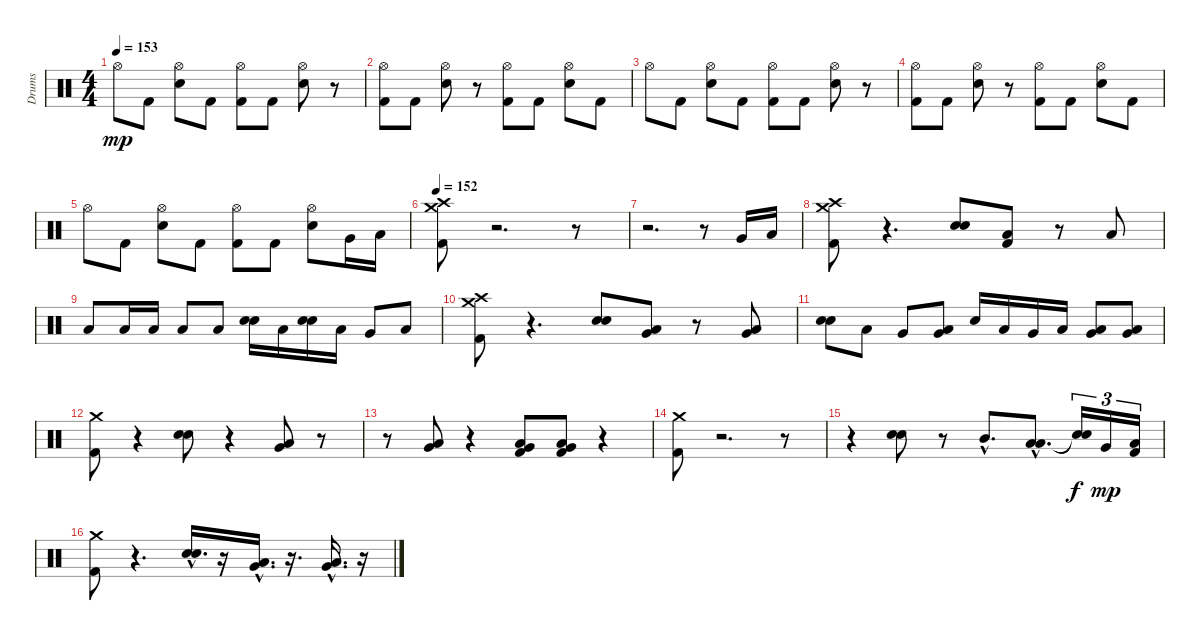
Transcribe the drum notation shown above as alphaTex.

\track ("Drums" "Drums") {instrument percussion}
\staff {score}
\articulation defaults
\ts (4 4)
\tempo 153
\clef neutral
\ks c "Hi-Hat (open)".8{dy mp} "Kick (hit) 2".8
("Hi-Hat (open)" "Snare (hit) 2").8 "Kick (hit) 2".8 ("Kick (hit) 2" "Hi-Hat (open)").8 "Kick (hit) 2".8 ("Snare (hit) 2" "Hi-Hat (open)").8 r.8 |
("Hi-Hat (open)" "Kick (hit) 2").8 "Kick (hit) 2".8 ("Snare (hit) 2" "Hi-Hat (open)").8 r.8 ("Kick (hit) 2" "Hi-Hat (open)").8 "Kick (hit) 2".8 ("Hi-Hat (open)" "Snare (hit) 2").8 "Kick (hit) 2".8 |
"Hi-Hat (open)".8 "Kick (hit) 2".8 ("Hi-Hat (open)" "Snare (hit) 2").8 "Kick (hit) 2".8 ("Hi-Hat (open)" "Kick (hit) 2").8 "Kick (hit) 2".8 ("Hi-Hat (open)" "Snare (hit) 2").8 r.8 |
("Kick (hit) 2" "Hi-Hat (open)").8 "Kick (hit) 2".8 ("Snare (hit) 2" "Hi-Hat (open)").8 r.8 ("Kick (hit) 2" "Hi-Hat (open)").8 "Kick (hit) 2".8 ("Snare (hit) 2" "Hi-Hat (open)").8 "Kick (hit) 2".8 |
"Hi-Hat (open)".8 "Kick (hit) 2".8 ("Snare (hit) 2" "Hi-Hat (open)").8 "Kick (hit) 2".8 ("Kick (hit) 2" "Hi-Hat (open)").8 "Kick (hit) 2".8 ("Snare (hit) 2" "Hi-Hat (open)").8 "Very Low Tom (hit)".16 "Low Floor Tom (hit)".16 |
\tempo 152
("Crash medium (hit)" "Crash high (hit)" "Kick (hit) 2").8 r.2{d} r.8 |
r.2{d} r.8 "Very Low Tom (hit)".16 "Low Floor Tom (hit)".16 |
("Kick (hit) 2" "Crash high (hit)" "Crash medium (hit)").8 r.4{d} ("Electric Snare (hit)" "Snare (hit) 2").8 ("Kick (hit) 2" "Low Tom (hit)").8 r.8 "Low Tom (hit)".8 |
"Low Tom (hit)".8 "Low Tom (hit)".16 "Low Tom (hit)".16 "Low Tom (hit)".8 "Low Tom (hit)".8 ("Electric Snare (hit)" "Snare (hit) 2").16 "Low Tom (hit)".16 ("Snare (hit) 2" "Electric Snare (hit)").16 "Low Tom (hit)".16 "Very Low Tom (hit)".8 "Low Floor Tom (hit)".8 |
("Crash medium (hit)" "Kick (hit) 2" "Crash high (hit)").8 r.4{d} ("Snare (hit) 2" "Electric Snare (hit)").8 ("Low Tom (hit)" "Very Low Tom (hit)").8 r.8 ("Low Tom (hit)" "Very Low Tom (hit)").8 |
("Electric Snare (hit)" "Snare (hit) 2").8 "Low Tom (hit)".8 "Very Low Tom (hit)".8 ("Low Tom (hit)" "Very Low Tom (hit)").8 "Electric Snare (hit)".16 "Low Tom (hit)".16 "Very Low Tom (hit)".16 "Low Floor Tom (hit)".16 ("Low Floor Tom (hit)" "Very Low Tom (hit)").8 ("Very Low Tom (hit)" "Low Floor Tom (hit)").8 |
("Crash medium (hit)" "Kick (hit) 2").8 r.4 ("Snare (hit) 2" "Electric Snare (hit)").8 r.4 ("Very Low Tom (hit)" "Low Tom (hit)").8 r.8 |
r.8 ("Low Floor Tom (hit)" "Very Low Tom (hit)").8 r.4 ("Kick (hit) 2" "Low Floor Tom (hit)" "Very Low Tom (hit)").8 ("Very Low Tom (hit)" "Low Floor Tom (hit)" "Kick (hit) 2").8 r.4 |
("Kick (hit) 2" "Crash medium (hit)").8 r.2{d} r.8 |
r.4 ("Electric Snare (hit)" "Snare (hit) 2").8 r.8 "Mid Tom (hit)"{hac}.8{d} ("Low Tom (hit)"{hac} "Low Tom (hit)"{hac}).8{d} ("Snare (hit)"{t} "Snare (hit)"{t}).16{tu (3 2) dy f} "Very Low Tom (hit)".16{tu (3 2) dy mp} ("Low Floor Tom (hit)" "Kick (hit) 2").16{tu (3 2)} |
("Crash medium (hit)" "Kick (hit) 2").8 r.4{d} ("Electric Snare (hit)"{hac} "Snare (hit) 2"{hac}).16{d} r.16 ("Low Tom (hit)"{hac} "Very Low Tom (hit)"{hac}).16{d} r.16{d} ("Low Floor Tom (hit)"{hac} "Very Low Tom (hit)"{hac}).16{d} r.16
